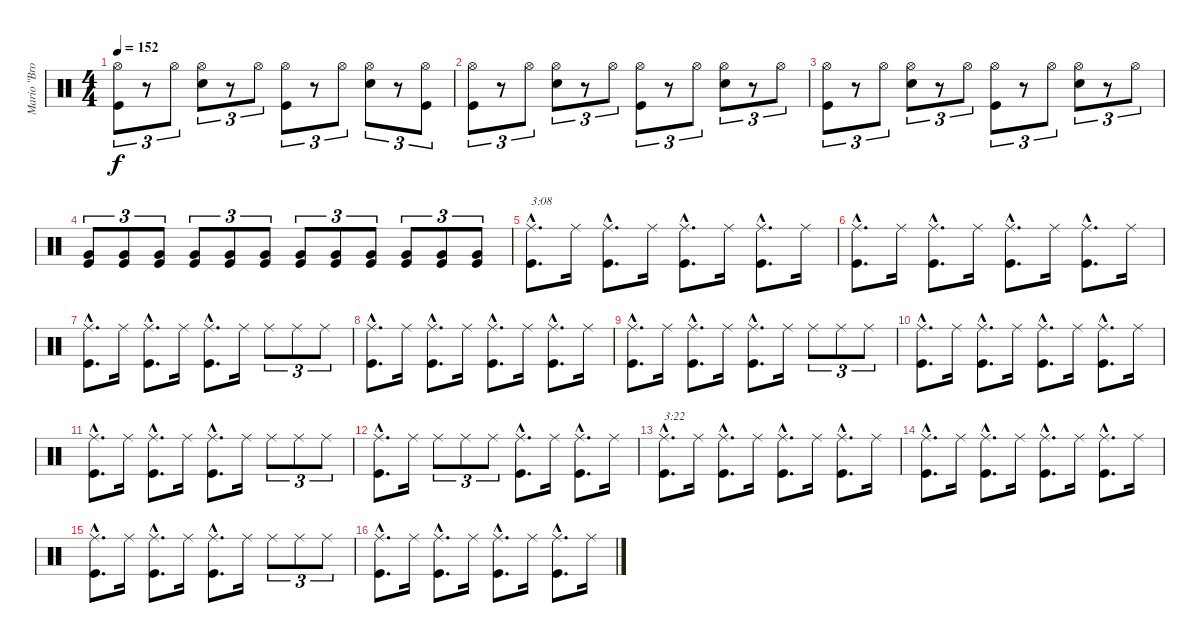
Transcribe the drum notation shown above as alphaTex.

\track ("Mario \"Bros\" Carvajal" "Mario \"Bro") {instrument percussion}
\staff {score}
\articulation defaults
\ts (4 4)
\tempo 152
\clef neutral
\ks c
("Kick (hit)" "Hi-Hat (open)").8{tu (3 2) dy f} r.8{tu (3 2)} "Hi-Hat (open)".8{tu (3 2)} ("Snare (hit) 2" "Hi-Hat (open)").8{tu (3 2)} r.8{tu (3 2)} "Hi-Hat (open)".8{tu (3 2)} ("Kick (hit)" "Hi-Hat (open)").8{tu (3 2)} r.8{tu (3 2)} "Hi-Hat (open)".8{tu (3 2)} ("Snare (hit) 2" "Hi-Hat (open)").8{tu (3 2)} r.8{tu (3 2)} ("Kick (hit)" "Hi-Hat (open)").8{tu (3 2)} |
("Kick (hit)" "Hi-Hat (open)").8{tu (3 2)} r.8{tu (3 2)} "Hi-Hat (open)".8{tu (3 2)} ("Snare (hit) 2" "Hi-Hat (open)").8{tu (3 2)} r.8{tu (3 2)} "Hi-Hat (open)".8{tu (3 2)} ("Kick (hit)" "Hi-Hat (open)").8{tu (3 2)} r.8{tu (3 2)} "Hi-Hat (open)".8{tu (3 2)} ("Snare (hit) 2" "Hi-Hat (open)").8{tu (3 2)} r.8{tu (3 2)} "Hi-Hat (open)".8{tu (3 2)} |
("Kick (hit)" "Hi-Hat (open)").8{tu (3 2)} r.8{tu (3 2)} "Hi-Hat (open)".8{tu (3 2)} ("Snare (hit) 2" "Hi-Hat (open)").8{tu (3 2)} r.8{tu (3 2)} "Hi-Hat (open)".8{tu (3 2)} ("Kick (hit)" "Hi-Hat (open)").8{tu (3 2)} r.8{tu (3 2)} "Hi-Hat (open)".8{tu (3 2)} ("Snare (hit) 2" "Hi-Hat (open)").8{tu (3 2)} r.8{tu (3 2)} "Hi-Hat (open)".8{tu (3 2)} |
("Kick (hit)" "Very Low Tom (hit)").8{tu (3 2)} ("Kick (hit)" "Very Low Tom (hit)").8{tu (3 2)} ("Kick (hit)" "Very Low Tom (hit)").8{tu (3 2)} ("Kick (hit)" "Very Low Tom (hit)").8{tu (3 2)} ("Kick (hit)" "Very Low Tom (hit)").8{tu (3 2)} ("Kick (hit)" "Very Low Tom (hit)").8{tu (3 2)} ("Kick (hit)" "Very Low Tom (hit)").8{tu (3 2)} ("Kick (hit)" "Very Low Tom (hit)").8{tu (3 2)} ("Kick (hit)" "Very Low Tom (hit)").8{tu (3 2)} ("Kick (hit)" "Very Low Tom (hit)").8{tu (3 2)} ("Kick (hit)" "Very Low Tom (hit)").8{tu (3 2)} ("Kick (hit)" "Very Low Tom (hit)").8{tu (3 2)} |
("Kick (hit)"{hac} "Ride (middle)"{hac}).8{d txt "3:08"} "Ride (middle)".16 ("Kick (hit)"{hac} "Ride (middle)"{hac}).8{d} "Ride (middle)".16 ("Kick (hit)"{hac} "Ride (middle)"{hac}).8{d} "Ride (middle)".16 ("Kick (hit)"{hac} "Ride (middle)"{hac}).8{d} "Ride (middle)".16 |
("Kick (hit)"{hac} "Ride (middle)"{hac}).8{d} "Ride (middle)".16 ("Kick (hit)"{hac} "Ride (middle)"{hac}).8{d} "Ride (middle)".16 ("Kick (hit)"{hac} "Ride (middle)"{hac}).8{d} "Ride (middle)".16 ("Kick (hit)"{hac} "Ride (middle)"{hac}).8{d} "Ride (middle)".16 |
("Kick (hit)"{hac} "Ride (middle)"{hac}).8{d} "Ride (middle)".16 ("Kick (hit)"{hac} "Ride (middle)"{hac}).8{d} "Ride (middle)".16 ("Kick (hit)"{hac} "Ride (middle)"{hac}).8{d} "Ride (middle)".16 "Ride (middle)".8{tu (3 2)} "Ride (middle)".8{tu (3 2)} "Ride (middle)".8{tu (3 2)} |
("Kick (hit)"{hac} "Ride (middle)"{hac}).8{d} "Ride (middle)".16 ("Kick (hit)"{hac} "Ride (middle)"{hac}).8{d} "Ride (middle)".16 ("Kick (hit)"{hac} "Ride (middle)"{hac}).8{d} "Ride (middle)".16 ("Kick (hit)"{hac} "Ride (middle)"{hac}).8{d} "Ride (middle)".16 |
("Kick (hit)"{hac} "Ride (middle)"{hac}).8{d} "Ride (middle)".16 ("Kick (hit)"{hac} "Ride (middle)"{hac}).8{d} "Ride (middle)".16 ("Kick (hit)"{hac} "Ride (middle)"{hac}).8{d} "Ride (middle)".16 "Ride (middle)".8{tu (3 2)} "Ride (middle)".8{tu (3 2)} "Ride (middle)".8{tu (3 2)} |
("Kick (hit)"{hac} "Ride (middle)"{hac}).8{d} "Ride (middle)".16 ("Kick (hit)"{hac} "Ride (middle)"{hac}).8{d} "Ride (middle)".16 ("Kick (hit)"{hac} "Ride (middle)"{hac}).8{d} "Ride (middle)".16 ("Kick (hit)"{hac} "Ride (middle)"{hac}).8{d} "Ride (middle)".16 |
("Kick (hit)"{hac} "Ride (middle)"{hac}).8{d} "Ride (middle)".16 ("Kick (hit)"{hac} "Ride (middle)"{hac}).8{d} "Ride (middle)".16 ("Kick (hit)"{hac} "Ride (middle)"{hac}).8{d} "Ride (middle)".16 "Ride (middle)".8{tu (3 2)} "Ride (middle)".8{tu (3 2)} "Ride (middle)".8{tu (3 2)} |
("Kick (hit)"{hac} "Ride (middle)"{hac}).8{d} "Ride (middle)".16 "Ride (middle)".8{tu (3 2)} "Ride (middle)".8{tu (3 2)} "Ride (middle)".8{tu (3 2)} ("Kick (hit)"{hac} "Ride (middle)"{hac}).8{d} "Ride (middle)".16 ("Kick (hit)"{hac} "Ride (middle)"{hac}).8{d} "Ride (middle)".16 |
("Kick (hit)"{hac} "Ride (middle)"{hac}).8{d txt "3:22"} "Ride (middle)".16 ("Kick (hit)"{hac} "Ride (middle)"{hac}).8{d} "Ride (middle)".16 ("Kick (hit)"{hac} "Ride (middle)"{hac}).8{d} "Ride (middle)".16 ("Kick (hit)"{hac} "Ride (middle)"{hac}).8{d} "Ride (middle)".16 |
("Kick (hit)"{hac} "Ride (middle)"{hac}).8{d} "Ride (middle)".16 ("Kick (hit)"{hac} "Ride (middle)"{hac}).8{d} "Ride (middle)".16 ("Kick (hit)"{hac} "Ride (middle)"{hac}).8{d} "Ride (middle)".16 ("Kick (hit)"{hac} "Ride (middle)"{hac}).8{d} "Ride (middle)".16 |
("Kick (hit)"{hac} "Ride (middle)"{hac}).8{d} "Ride (middle)".16 ("Kick (hit)"{hac} "Ride (middle)"{hac}).8{d} "Ride (middle)".16 ("Kick (hit)"{hac} "Ride (middle)"{hac}).8{d} "Ride (middle)".16 "Ride (middle)".8{tu (3 2)} "Ride (middle)".8{tu (3 2)} "Ride (middle)".8{tu (3 2)} |
("Kick (hit)"{hac} "Ride (middle)"{hac}).8{d} "Ride (middle)".16 ("Kick (hit)"{hac} "Ride (middle)"{hac}).8{d} "Ride (middle)".16 ("Kick (hit)"{hac} "Ride (middle)"{hac}).8{d} "Ride (middle)".16 ("Kick (hit)"{hac} "Ride (middle)"{hac}).8{d} "Ride (middle)".16
